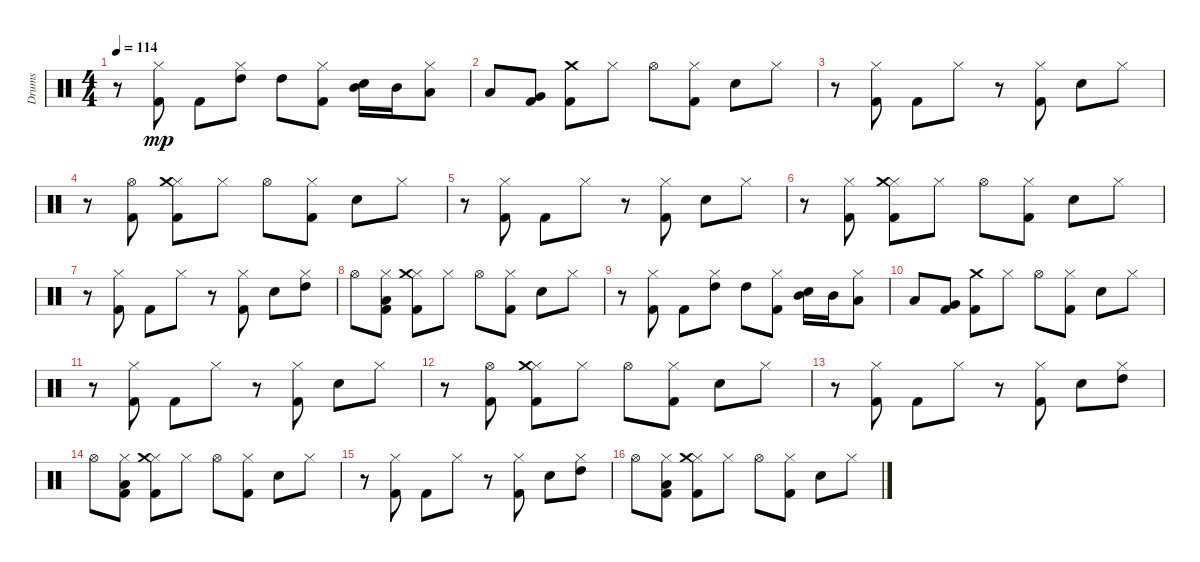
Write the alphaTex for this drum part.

\track ("Drums" "Drums") {instrument percussion}
\staff {score}
\articulation defaults
\ts (4 4)
\tempo 114
\clef neutral
\ks c
r.8{dy mp} ("Kick (hit) 2" "Hi-Hat (closed)").8 "Kick (hit) 2".8 ("Hi-Hat (closed)" "High Tom (hit)").8 "High Tom (hit)".8 ("Kick (hit) 2" "Hi-Hat (closed)").8 ("Snare (hit) 2" "Mid Tom (hit)").16 "Mid Tom (hit)".16 ("Hi-Hat (closed)" "Low Tom (hit)").8 |
"Low Tom (hit)".8 ("Kick (hit) 2" "Very Low Tom (hit)").8 ("Kick (hit) 2" "Crash medium (hit)").8 "Hi-Hat (closed)".8 "Hi-Hat (open)".8 ("Kick (hit) 2" "Hi-Hat (closed)").8 "Snare (hit) 2".8 "Hi-Hat (closed)".8 |
r.8 ("Kick (hit) 2" "Hi-Hat (closed)").8 "Kick (hit) 2".8 "Hi-Hat (closed)".8 r.8 ("Kick (hit) 2" "Hi-Hat (closed)").8 "Snare (hit) 2".8 "Hi-Hat (closed)".8 |
r.8 ("Kick (hit) 2" "Hi-Hat (open)").8 ("Kick (hit) 2" "Hi-Hat (closed)" "Crash medium (hit)").8 "Hi-Hat (closed)".8 "Hi-Hat (open)".8 ("Kick (hit) 2" "Hi-Hat (closed)").8 "Snare (hit) 2".8 "Hi-Hat (closed)".8 |
r.8 ("Kick (hit) 2" "Hi-Hat (closed)").8 "Kick (hit) 2".8 "Hi-Hat (closed)".8 r.8 ("Kick (hit) 2" "Hi-Hat (closed)").8 "Snare (hit) 2".8 "Hi-Hat (closed)".8 |
r.8 ("Kick (hit) 2" "Hi-Hat (closed)").8 ("Kick (hit) 2" "Hi-Hat (closed)" "Crash medium (hit)").8 "Hi-Hat (closed)".8 "Hi-Hat (open)".8 ("Kick (hit) 2" "Hi-Hat (closed)").8 "Snare (hit) 2".8 "Hi-Hat (closed)".8 |
r.8 ("Kick (hit) 2" "Hi-Hat (closed)").8 "Kick (hit) 2".8 "Hi-Hat (closed)".8 r.8 ("Kick (hit) 2" "Hi-Hat (closed)").8 "Snare (hit) 2".8 ("Hi-Hat (closed)" "High Tom (hit)").8 |
"Hi-Hat (open)".8 ("Kick (hit) 2" "Hi-Hat (closed)" "Low Tom (hit)").8 ("Kick (hit) 2" "Hi-Hat (closed)" "Crash medium (hit)").8 "Hi-Hat (closed)".8 "Hi-Hat (open)".8 ("Kick (hit) 2" "Hi-Hat (closed)").8 "Snare (hit) 2".8 "Hi-Hat (closed)".8 |
r.8 ("Kick (hit) 2" "Hi-Hat (closed)").8 "Kick (hit) 2".8 ("Hi-Hat (closed)" "High Tom (hit)").8 "High Tom (hit)".8 ("Kick (hit) 2" "Hi-Hat (closed)").8 ("Snare (hit) 2" "Mid Tom (hit)").16 "Mid Tom (hit)".16 ("Hi-Hat (closed)" "Low Tom (hit)").8 |
"Low Tom (hit)".8 ("Kick (hit) 2" "Very Low Tom (hit)").8 ("Kick (hit) 2" "Crash medium (hit)").8 "Hi-Hat (closed)".8 "Hi-Hat (open)".8 ("Kick (hit) 2" "Hi-Hat (closed)").8 "Snare (hit) 2".8 "Hi-Hat (closed)".8 |
r.8 ("Kick (hit) 2" "Hi-Hat (closed)").8 "Kick (hit) 2".8 "Hi-Hat (closed)".8 r.8 ("Kick (hit) 2" "Hi-Hat (closed)").8 "Snare (hit) 2".8 "Hi-Hat (closed)".8 |
r.8 ("Kick (hit) 2" "Hi-Hat (open)").8 ("Kick (hit) 2" "Hi-Hat (closed)" "Crash medium (hit)").8 "Hi-Hat (closed)".8 "Hi-Hat (open)".8 ("Kick (hit) 2" "Hi-Hat (closed)").8 "Snare (hit) 2".8 "Hi-Hat (closed)".8 |
r.8 ("Kick (hit) 2" "Hi-Hat (closed)").8 "Kick (hit) 2".8 "Hi-Hat (closed)".8 r.8 ("Kick (hit) 2" "Hi-Hat (closed)").8 "Snare (hit) 2".8 ("Hi-Hat (closed)" "High Tom (hit)").8 |
"Hi-Hat (open)".8 ("Kick (hit) 2" "Hi-Hat (closed)" "Low Tom (hit)").8 ("Kick (hit) 2" "Hi-Hat (closed)" "Crash medium (hit)").8 "Hi-Hat (closed)".8 "Hi-Hat (open)".8 ("Kick (hit) 2" "Hi-Hat (closed)").8 "Snare (hit) 2".8 "Hi-Hat (closed)".8 |
r.8 ("Kick (hit) 2" "Hi-Hat (closed)").8 "Kick (hit) 2".8 "Hi-Hat (closed)".8 r.8 ("Kick (hit) 2" "Hi-Hat (closed)").8 "Snare (hit) 2".8 ("Hi-Hat (closed)" "High Tom (hit)").8 |
"Hi-Hat (open)".8 ("Kick (hit) 2" "Hi-Hat (closed)" "Low Tom (hit)").8 ("Kick (hit) 2" "Hi-Hat (closed)" "Crash medium (hit)").8 "Hi-Hat (closed)".8 "Hi-Hat (open)".8 ("Kick (hit) 2" "Hi-Hat (closed)").8 "Snare (hit) 2".8 "Hi-Hat (closed)".8
